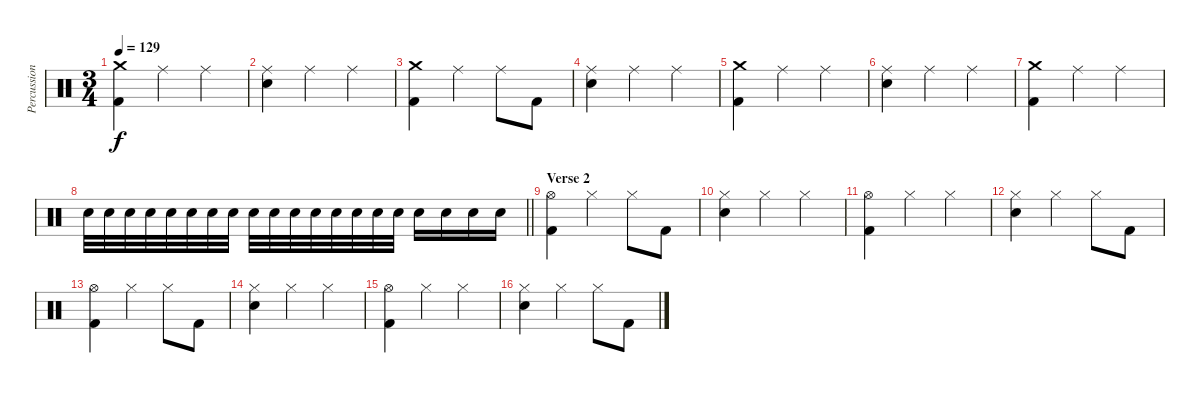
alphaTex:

\track ("Percussion" "Percussion") {instrument percussion}
\staff {score}
\articulation defaults
\ts (3 4)
\tempo 129
\clef neutral
\ks c
("Crash medium (hit)" "Kick (hit) 2").4{dy f} "Ride (middle)".4 "Ride (middle)".4 |
("Ride (middle)" "Electric Snare (hit)").4 "Ride (middle)".4 "Ride (middle)".4 |
("Crash medium (hit)" "Kick (hit) 2").4 "Ride (middle)".4 "Ride (middle)".8 "Kick (hit) 2".8 |
("Ride (middle)" "Electric Snare (hit)").4 "Ride (middle)".4 "Ride (middle)".4 |
("Crash medium (hit)" "Kick (hit) 2").4 "Ride (middle)".4 "Ride (middle)".4 |
("Ride (middle)" "Electric Snare (hit)").4 "Ride (middle)".4 "Ride (middle)".4 |
("Crash medium (hit)" "Kick (hit) 2").4 "Ride (middle)".4 "Ride (middle)".4 |
\barLineRight lightlight "Electric Snare (hit)".32 "Electric Snare (hit)".32 "Electric Snare (hit)".32 "Electric Snare (hit)".32 "Electric Snare (hit)".32 "Electric Snare (hit)".32 "Electric Snare (hit)".32 "Electric Snare (hit)".32 "Electric Snare (hit)".32 "Electric Snare (hit)".32 "Electric Snare (hit)".32 "Electric Snare (hit)".32 "Electric Snare (hit)".32 "Electric Snare (hit)".32 "Electric Snare (hit)".32 "Electric Snare (hit)".32 "Electric Snare (hit)".16 "Electric Snare (hit)".16 "Electric Snare (hit)".16 "Electric Snare (hit)".16
|
\section ("" "Verse 2")
("Hi-Hat (open)" "Kick (hit) 2").4 "Hi-Hat (closed)".4 "Hi-Hat (closed)".8 "Kick (hit) 2".8 |
("Hi-Hat (closed)" "Electric Snare (hit)").4 "Hi-Hat (closed)".4 "Hi-Hat (closed)".4 |
("Hi-Hat (open)" "Kick (hit) 2").4 "Hi-Hat (closed)".4 "Hi-Hat (closed)".4 |
("Hi-Hat (closed)" "Electric Snare (hit)").4 "Hi-Hat (closed)".4 "Hi-Hat (closed)".8 "Kick (hit) 2".8 |
("Hi-Hat (open)" "Kick (hit) 2").4 "Hi-Hat (closed)".4 "Hi-Hat (closed)".8 "Kick (hit) 2".8 |
("Hi-Hat (closed)" "Electric Snare (hit)").4 "Hi-Hat (closed)".4 "Hi-Hat (closed)".4 |
("Hi-Hat (open)" "Kick (hit) 2").4 "Hi-Hat (closed)".4 "Hi-Hat (closed)".4 |
("Hi-Hat (closed)" "Electric Snare (hit)").4 "Hi-Hat (closed)".4 "Hi-Hat (closed)".8 "Kick (hit) 2".8
